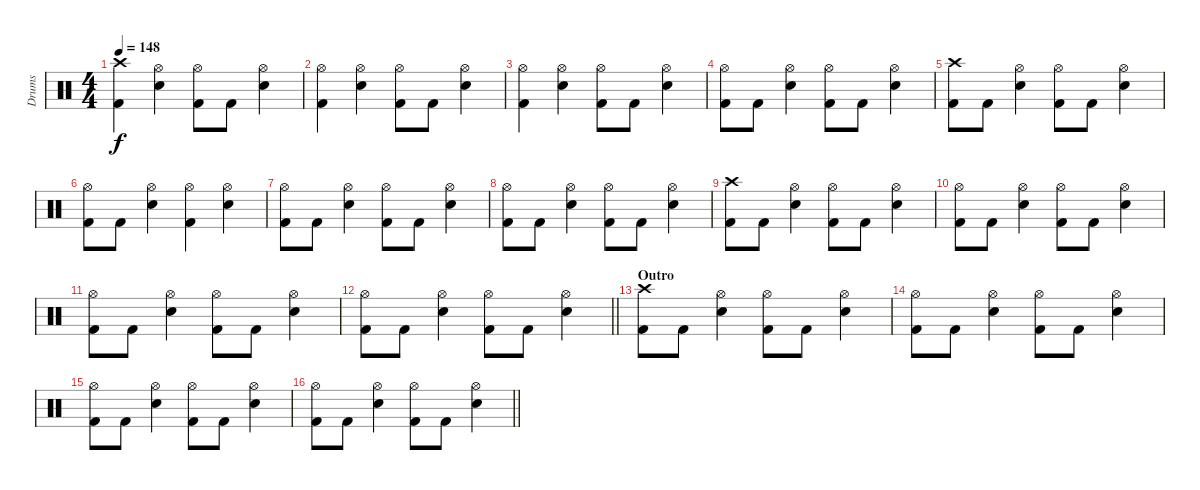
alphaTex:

\track ("Drums" "Drums") {instrument percussion}
\staff {score}
\articulation defaults
\ts (4 4)
\tempo 148
\clef neutral
\ks c
("Crash high (hit)" "Kick (hit) 2").4{dy f} ("Hi-Hat (open)" "Snare (hit) 2").4 ("Hi-Hat (open)" "Kick (hit) 2").8 "Kick (hit) 2".8 ("Hi-Hat (open)" "Snare (hit) 2").4 |
("Hi-Hat (open)" "Kick (hit) 2").4 ("Hi-Hat (open)" "Snare (hit) 2").4 ("Hi-Hat (open)" "Kick (hit) 2").8 "Kick (hit) 2".8 ("Hi-Hat (open)" "Snare (hit) 2").4 |
("Hi-Hat (open)" "Kick (hit) 2").4 ("Hi-Hat (open)" "Snare (hit) 2").4 ("Hi-Hat (open)" "Kick (hit) 2").8 "Kick (hit) 2".8 ("Hi-Hat (open)" "Snare (hit) 2").4 |
("Hi-Hat (open)" "Kick (hit) 2").8 "Kick (hit) 2".8 ("Hi-Hat (open)" "Snare (hit) 2").4 ("Hi-Hat (open)" "Kick (hit) 2").8 "Kick (hit) 2".8 ("Hi-Hat (open)" "Snare (hit) 2").4 |
("Crash high (hit)" "Kick (hit) 2").8 "Kick (hit) 2".8 ("Hi-Hat (open)" "Snare (hit) 2").4 ("Hi-Hat (open)" "Kick (hit) 2").8 "Kick (hit) 2".8 ("Hi-Hat (open)" "Snare (hit) 2").4 |
("Hi-Hat (open)" "Kick (hit) 2").8 "Kick (hit) 2".8 ("Hi-Hat (open)" "Snare (hit) 2").4 ("Hi-Hat (open)" "Kick (hit) 2").4 ("Hi-Hat (open)" "Snare (hit) 2").4 |
("Hi-Hat (open)" "Kick (hit) 2").8 "Kick (hit) 2".8 ("Hi-Hat (open)" "Snare (hit) 2").4 ("Hi-Hat (open)" "Kick (hit) 2").8 "Kick (hit) 2".8 ("Hi-Hat (open)" "Snare (hit) 2").4 |
("Hi-Hat (open)" "Kick (hit) 2").8 "Kick (hit) 2".8 ("Hi-Hat (open)" "Snare (hit) 2").4 ("Hi-Hat (open)" "Kick (hit) 2").8 "Kick (hit) 2".8 ("Hi-Hat (open)" "Snare (hit) 2").4 |
("Crash high (hit)" "Kick (hit) 2").8 "Kick (hit) 2".8 ("Hi-Hat (open)" "Snare (hit) 2").4 ("Hi-Hat (open)" "Kick (hit) 2").8 "Kick (hit) 2".8 ("Hi-Hat (open)" "Snare (hit) 2").4 |
("Hi-Hat (open)" "Kick (hit) 2").8 "Kick (hit) 2".8 ("Hi-Hat (open)" "Snare (hit) 2").4 ("Hi-Hat (open)" "Kick (hit) 2").8 "Kick (hit) 2".8 ("Hi-Hat (open)" "Snare (hit) 2").4 |
("Hi-Hat (open)" "Kick (hit) 2").8 "Kick (hit) 2".8 ("Hi-Hat (open)" "Snare (hit) 2").4 ("Hi-Hat (open)" "Kick (hit) 2").8 "Kick (hit) 2".8 ("Hi-Hat (open)" "Snare (hit) 2").4 |
\barLineRight lightlight
("Hi-Hat (open)" "Kick (hit) 2").8 "Kick (hit) 2".8 ("Hi-Hat (open)" "Snare (hit) 2").4 ("Hi-Hat (open)" "Kick (hit) 2").8 "Kick (hit) 2".8 ("Hi-Hat (open)" "Snare (hit) 2").4 |
\section ("" "Outro")
("Crash high (hit)" "Kick (hit) 2").8 "Kick (hit) 2".8 ("Hi-Hat (open)" "Snare (hit) 2").4 ("Hi-Hat (open)" "Kick (hit) 2").8 "Kick (hit) 2".8 ("Hi-Hat (open)" "Snare (hit) 2").4 |
("Hi-Hat (open)" "Kick (hit) 2").8 "Kick (hit) 2".8 ("Hi-Hat (open)" "Snare (hit) 2").4 ("Hi-Hat (open)" "Kick (hit) 2").8 "Kick (hit) 2".8 ("Hi-Hat (open)" "Snare (hit) 2").4 |
("Hi-Hat (open)" "Kick (hit) 2").8 "Kick (hit) 2".8 ("Hi-Hat (open)" "Snare (hit) 2").4 ("Hi-Hat (open)" "Kick (hit) 2").8 "Kick (hit) 2".8 ("Hi-Hat (open)" "Snare (hit) 2").4 |
\barLineRight lightlight
("Hi-Hat (open)" "Kick (hit) 2").8 "Kick (hit) 2".8 ("Hi-Hat (open)" "Snare (hit) 2").4 ("Hi-Hat (open)" "Kick (hit) 2").8 "Kick (hit) 2".8 ("Hi-Hat (open)" "Snare (hit) 2").4
